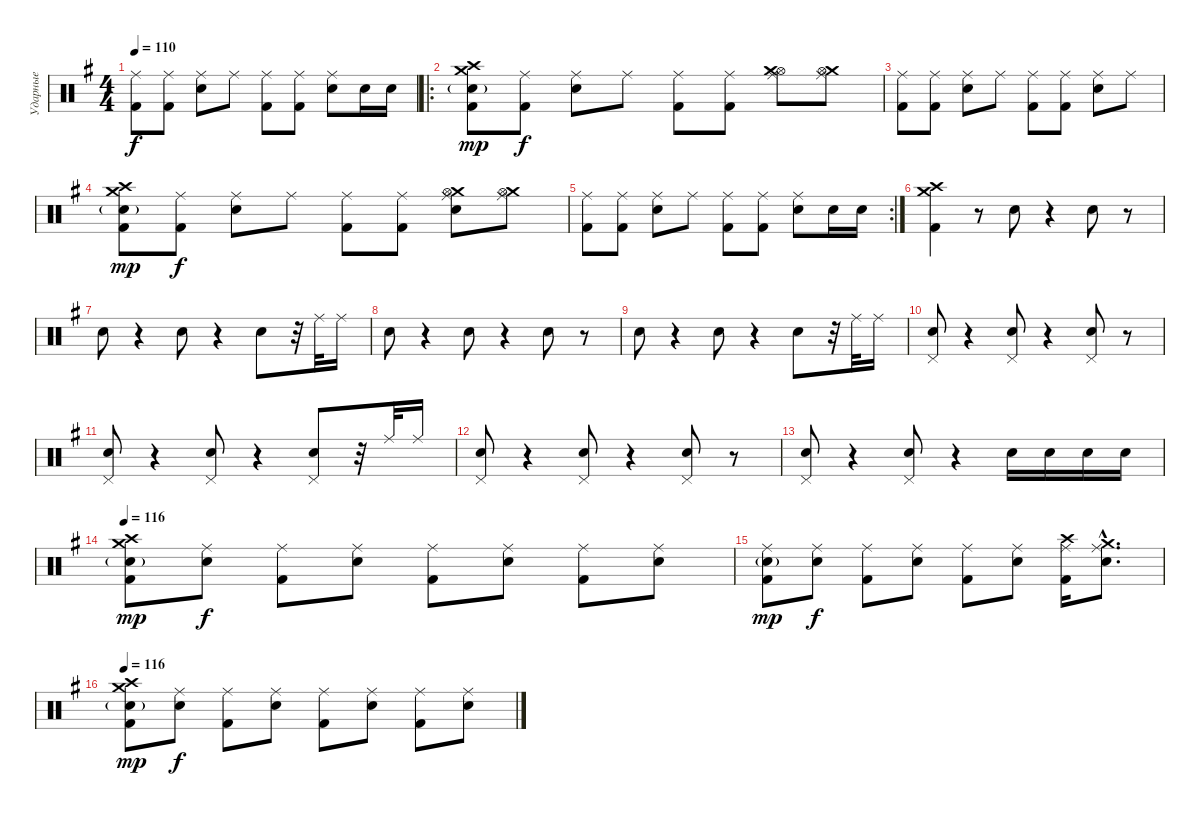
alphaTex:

\track ("Ударные" "Ударные") {instrument percussion}
\staff {score}
\articulation defaults
\ts (4 4)
\tempo 110
\clef neutral
\ks eminor
("Ride (middle)" "Kick (hit) 2").8{dy f} ("Ride (middle)" "Kick (hit) 2").8 ("Ride (middle)" "Electric Snare (hit)").8 "Ride (middle)".8 ("Ride (middle)" "Kick (hit) 2").8 ("Ride (middle)" "Kick (hit) 2").8 ("Ride (middle)" "Electric Snare (hit)").8 "Electric Snare (hit)".16 "Electric Snare (hit)".16 |
\ro
("Crash high (hit)" "Crash medium (hit)" "Electric Snare (hit)"{g} "Kick (hit) 2").8{dy mp} ("Ride (middle)" "Kick (hit) 2").8{dy f} ("Ride (middle)" "Electric Snare (hit)").8 "Ride (middle)".8 ("Ride (middle)" "Kick (hit) 2").8 ("Ride (middle)" "Kick (hit) 2").8 ("Ride (middle)" "Hi-Hat (open)" "Crash medium (hit)").8 ("Ride (middle)" "Crash medium (hit)" "Hi-Hat (open)").8 |
("Ride (middle)" "Kick (hit) 2").8 ("Ride (middle)" "Kick (hit) 2").8 ("Ride (middle)" "Electric Snare (hit)").8 "Ride (middle)".8 ("Ride (middle)" "Kick (hit) 2").8 ("Ride (middle)" "Kick (hit) 2").8 ("Ride (middle)" "Electric Snare (hit)").8 "Ride (middle)".8 |
("Crash high (hit)" "Crash medium (hit)" "Electric Snare (hit)"{g} "Kick (hit) 2").8{dy mp} ("Ride (middle)" "Kick (hit) 2").8{dy f} ("Ride (middle)" "Electric Snare (hit)").8 "Ride (middle)".8 ("Ride (middle)" "Kick (hit) 2").8 ("Ride (middle)" "Kick (hit) 2").8 ("Ride (middle)" "Crash medium (hit)" "Electric Snare (hit)" "Hi-Hat (open)").8 ("Ride (middle)" "Crash medium (hit)" "Hi-Hat (open)").8 |
\rc 2
("Ride (middle)" "Kick (hit) 2").8 ("Ride (middle)" "Kick (hit) 2").8 ("Ride (middle)" "Electric Snare (hit)").8 "Ride (middle)".8 ("Ride (middle)" "Kick (hit) 2").8 ("Ride (middle)" "Kick (hit) 2").8 ("Ride (middle)" "Electric Snare (hit)").8 "Electric Snare (hit)".16 "Electric Snare (hit)".16 |
("Crash medium (hit)" "Kick (hit) 2" "Crash high (hit)").4 r.8 "Electric Snare (hit)".8 r.4 "Electric Snare (hit)".8 r.8 |
"Electric Snare (hit)".8 r.4 "Electric Snare (hit)".8 r.4 "Electric Snare (hit)".8 r.32 "Ride (middle)".32 "Ride (middle)".16 |
"Electric Snare (hit)".8 r.4 "Electric Snare (hit)".8 r.4 "Electric Snare (hit)".8 r.8 |
"Electric Snare (hit)".8 r.4 "Electric Snare (hit)".8 r.4 "Electric Snare (hit)".8 r.32 "Ride (middle)".32 "Ride (middle)".16 |
("Pedal Hi-Hat (hit)" "Electric Snare (hit)").8 r.4 ("Pedal Hi-Hat (hit)" "Electric Snare (hit)").8 r.4 ("Pedal Hi-Hat (hit)" "Electric Snare (hit)").8 r.8 |
("Pedal Hi-Hat (hit)" "Electric Snare (hit)").8 r.4 ("Pedal Hi-Hat (hit)" "Electric Snare (hit)").8 r.4 ("Pedal Hi-Hat (hit)" "Electric Snare (hit)").8 r.32 "Ride (middle)".32 "Ride (middle)".16 |
("Pedal Hi-Hat (hit)" "Electric Snare (hit)").8 r.4 ("Pedal Hi-Hat (hit)" "Electric Snare (hit)").8 r.4 ("Pedal Hi-Hat (hit)" "Electric Snare (hit)").8 r.8 |
("Pedal Hi-Hat (hit)" "Electric Snare (hit)").8 r.4 ("Pedal Hi-Hat (hit)" "Electric Snare (hit)").8 r.4 "Electric Snare (hit)".16 "Electric Snare (hit)".16 "Electric Snare (hit)".16 "Electric Snare (hit)".16 |
\tempo 116
("Crash high (hit)" "Crash medium (hit)" "Electric Snare (hit)"{g} "Kick (hit) 2").8{dy mp} ("Ride (middle)" "Electric Snare (hit)").8{dy f} ("Ride (middle)" "Kick (hit) 2").8 ("Ride (middle)" "Electric Snare (hit)").8 ("Ride (middle)" "Kick (hit) 2").8 ("Ride (middle)" "Electric Snare (hit)").8 ("Ride (middle)" "Kick (hit) 2").8 ("Ride (middle)" "Electric Snare (hit)").8 |
("Ride (middle)" "Electric Snare (hit)"{g} "Kick (hit) 2").8{dy mp} ("Ride (middle)" "Electric Snare (hit)").8{dy f} ("Ride (middle)" "Kick (hit) 2").8 ("Ride (middle)" "Electric Snare (hit)").8 ("Ride (middle)" "Kick (hit) 2").8 ("Ride (middle)" "Electric Snare (hit)").8 ("Ride (middle)" "Crash high (hit)" "Kick (hit) 2").16 ("Ride (middle)"{hac} "Crash medium (hit)"{hac} "Electric Snare (hit)"{hac}).8{d} |
\tempo 116
("Crash high (hit)" "Crash medium (hit)" "Electric Snare (hit)"{g} "Kick (hit) 2").8{dy mp} ("Ride (middle)" "Electric Snare (hit)").8{dy f} ("Ride (middle)" "Kick (hit) 2").8 ("Ride (middle)" "Electric Snare (hit)").8 ("Ride (middle)" "Kick (hit) 2").8 ("Ride (middle)" "Electric Snare (hit)").8 ("Ride (middle)" "Kick (hit) 2").8 ("Ride (middle)" "Electric Snare (hit)").8
